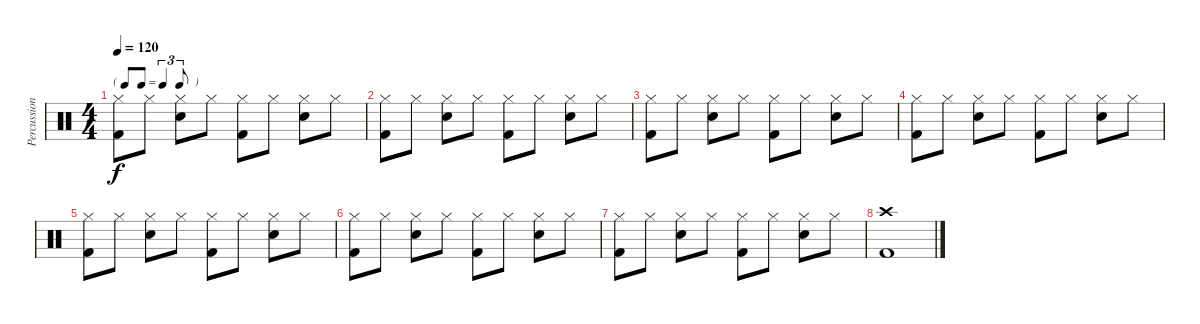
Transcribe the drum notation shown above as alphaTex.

\track ("Percussion" "Percussion") {instrument percussion}
\staff {score}
\articulation defaults
\ts (4 4)
\tf triplet8th
\tempo 120
\clef neutral
\ks c
("Hi-Hat (closed)" "Kick (hit) 2").8{dy f} "Hi-Hat (closed)".8 ("Hi-Hat (closed)" "Snare (hit) 2").8 "Hi-Hat (closed)".8 ("Hi-Hat (closed)" "Kick (hit) 2").8 "Hi-Hat (closed)".8 ("Hi-Hat (closed)" "Snare (hit) 2").8 "Hi-Hat (closed)".8 |
("Hi-Hat (closed)" "Kick (hit) 2").8 "Hi-Hat (closed)".8 ("Hi-Hat (closed)" "Snare (hit) 2").8 "Hi-Hat (closed)".8 ("Hi-Hat (closed)" "Kick (hit) 2").8 "Hi-Hat (closed)".8 ("Hi-Hat (closed)" "Snare (hit) 2").8 "Hi-Hat (closed)".8 |
("Hi-Hat (closed)" "Kick (hit) 2").8 "Hi-Hat (closed)".8 ("Hi-Hat (closed)" "Snare (hit) 2").8 "Hi-Hat (closed)".8 ("Hi-Hat (closed)" "Kick (hit) 2").8 "Hi-Hat (closed)".8 ("Hi-Hat (closed)" "Snare (hit) 2").8 "Hi-Hat (closed)".8 |
("Hi-Hat (closed)" "Kick (hit) 2").8 "Hi-Hat (closed)".8 ("Hi-Hat (closed)" "Snare (hit) 2").8 "Hi-Hat (closed)".8 ("Hi-Hat (closed)" "Kick (hit) 2").8 "Hi-Hat (closed)".8 ("Hi-Hat (closed)" "Snare (hit) 2").8 "Hi-Hat (closed)".8 |
("Hi-Hat (closed)" "Kick (hit) 2").8 "Hi-Hat (closed)".8 ("Hi-Hat (closed)" "Snare (hit) 2").8 "Hi-Hat (closed)".8 ("Hi-Hat (closed)" "Kick (hit) 2").8 "Hi-Hat (closed)".8 ("Hi-Hat (closed)" "Snare (hit) 2").8 "Hi-Hat (closed)".8 |
("Hi-Hat (closed)" "Kick (hit) 2").8 "Hi-Hat (closed)".8 ("Hi-Hat (closed)" "Snare (hit) 2").8 "Hi-Hat (closed)".8 ("Hi-Hat (closed)" "Kick (hit) 2").8 "Hi-Hat (closed)".8 ("Hi-Hat (closed)" "Snare (hit) 2").8 "Hi-Hat (closed)".8 |
("Hi-Hat (closed)" "Kick (hit) 2").8 "Hi-Hat (closed)".8 ("Hi-Hat (closed)" "Snare (hit) 2").8 "Hi-Hat (closed)".8 ("Hi-Hat (closed)" "Kick (hit) 2").8 "Hi-Hat (closed)".8 ("Hi-Hat (closed)" "Snare (hit) 2").8 "Hi-Hat (closed)".8 |
("Crash high (hit)" "Kick (hit) 2").1
